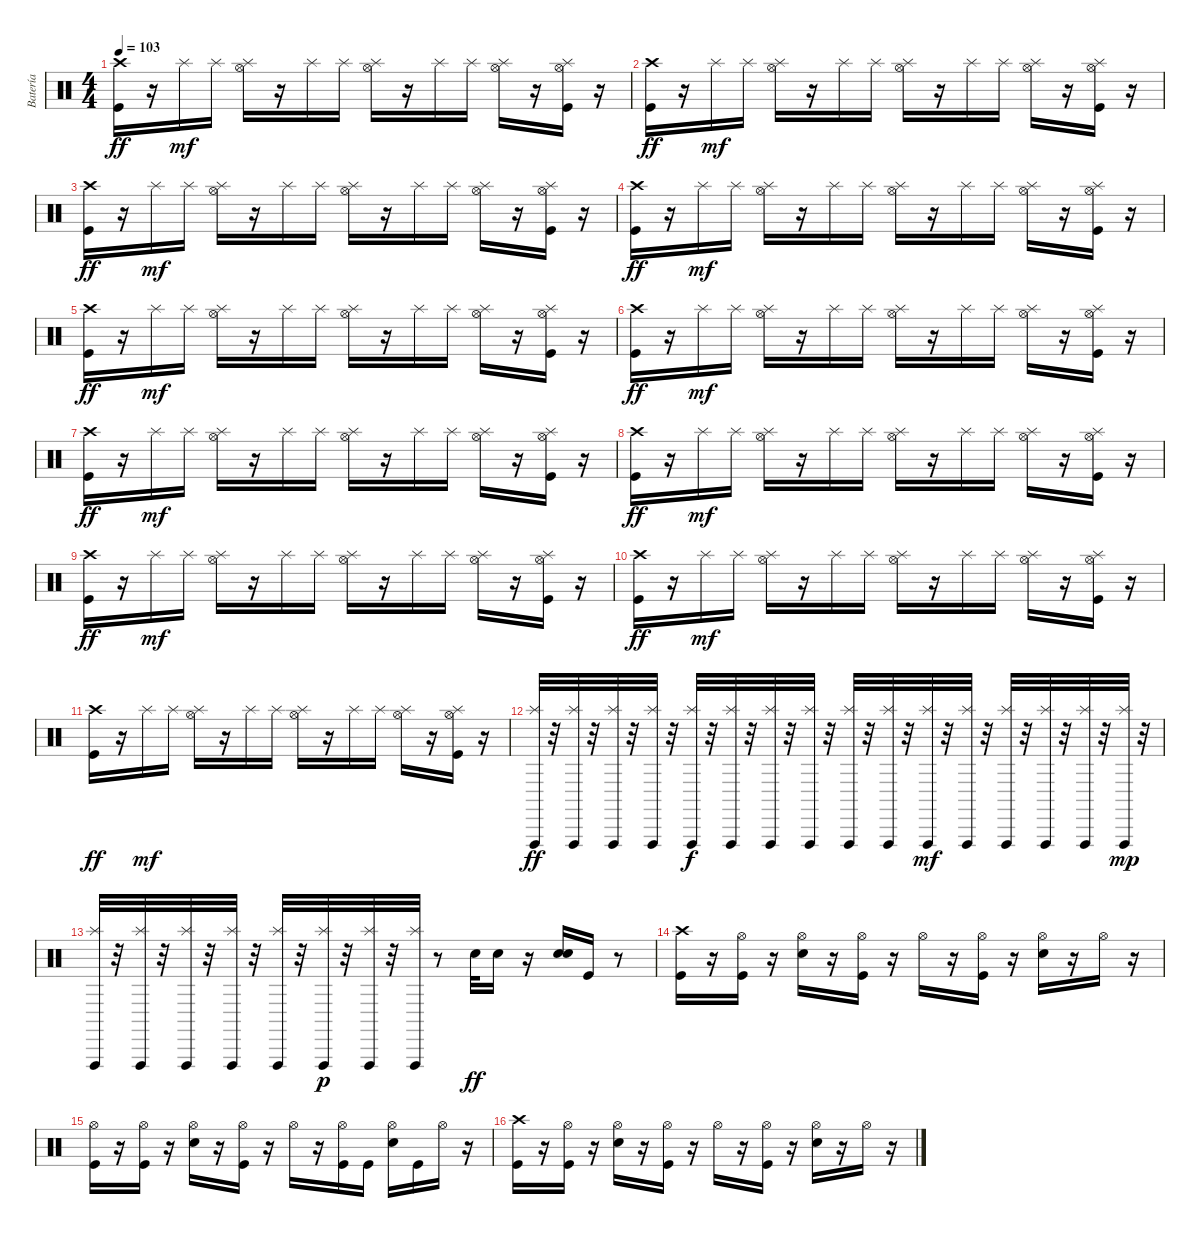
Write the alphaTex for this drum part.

\track ("Batería" "Batería") {instrument percussion}
\staff {score}
\articulation defaults
\ts (4 4)
\tempo 103
\clef neutral
\ks c
("Kick (hit)" "Crash high (hit)").16{dy ff} r.16 "Splash (hit)".16{dy mf} "Splash (hit)".16 ("Hi-Hat (open)" "Splash (hit)").16 r.16 "Splash (hit)".16 "Splash (hit)".16 ("Hi-Hat (open)" "Splash (hit)").16 r.16 "Splash (hit)".16 "Splash (hit)".16 ("Hi-Hat (open)" "Splash (hit)").16 r.16 ("Kick (hit)" "Hi-Hat (open)" "Splash (hit)").16 r.16 |
("Crash high (hit)" "Kick (hit)").16{dy ff} r.16 "Splash (hit)".16{dy mf} "Splash (hit)".16 ("Hi-Hat (open)" "Splash (hit)").16 r.16 "Splash (hit)".16 "Splash (hit)".16 ("Hi-Hat (open)" "Splash (hit)").16 r.16 "Splash (hit)".16 "Splash (hit)".16 ("Hi-Hat (open)" "Splash (hit)").16 r.16 ("Kick (hit)" "Hi-Hat (open)" "Splash (hit)").16 r.16 |
("Crash high (hit)" "Kick (hit)").16{dy ff} r.16 "Splash (hit)".16{dy mf} "Splash (hit)".16 ("Hi-Hat (open)" "Splash (hit)").16 r.16 "Splash (hit)".16 "Splash (hit)".16 ("Hi-Hat (open)" "Splash (hit)").16 r.16 "Splash (hit)".16 "Splash (hit)".16 ("Hi-Hat (open)" "Splash (hit)").16 r.16 ("Kick (hit)" "Hi-Hat (open)" "Splash (hit)").16 r.16 |
("Crash high (hit)" "Kick (hit)").16{dy ff} r.16 "Splash (hit)".16{dy mf} "Splash (hit)".16 ("Hi-Hat (open)" "Splash (hit)").16 r.16 "Splash (hit)".16 "Splash (hit)".16 ("Hi-Hat (open)" "Splash (hit)").16 r.16 "Splash (hit)".16 "Splash (hit)".16 ("Hi-Hat (open)" "Splash (hit)").16 r.16 ("Kick (hit)" "Hi-Hat (open)" "Splash (hit)").16 r.16 |
("Crash high (hit)" "Kick (hit)").16{dy ff} r.16 "Splash (hit)".16{dy mf} "Splash (hit)".16 ("Hi-Hat (open)" "Splash (hit)").16 r.16 "Splash (hit)".16 "Splash (hit)".16 ("Hi-Hat (open)" "Splash (hit)").16 r.16 "Splash (hit)".16 "Splash (hit)".16 ("Hi-Hat (open)" "Splash (hit)").16 r.16 ("Kick (hit)" "Hi-Hat (open)" "Splash (hit)").16 r.16 |
("Crash high (hit)" "Kick (hit)").16{dy ff} r.16 "Splash (hit)".16{dy mf} "Splash (hit)".16 ("Hi-Hat (open)" "Splash (hit)").16 r.16 "Splash (hit)".16 "Splash (hit)".16 ("Hi-Hat (open)" "Splash (hit)").16 r.16 "Splash (hit)".16 "Splash (hit)".16 ("Hi-Hat (open)" "Splash (hit)").16 r.16 ("Kick (hit)" "Hi-Hat (open)" "Splash (hit)").16 r.16 |
("Crash high (hit)" "Kick (hit)").16{dy ff} r.16 "Splash (hit)".16{dy mf} "Splash (hit)".16 ("Hi-Hat (open)" "Splash (hit)").16 r.16 "Splash (hit)".16 "Splash (hit)".16 ("Hi-Hat (open)" "Splash (hit)").16 r.16 "Splash (hit)".16 "Splash (hit)".16 ("Hi-Hat (open)" "Splash (hit)").16 r.16 ("Kick (hit)" "Hi-Hat (open)" "Splash (hit)").16 r.16 |
("Crash high (hit)" "Kick (hit)").16{dy ff} r.16 "Splash (hit)".16{dy mf} "Splash (hit)".16 ("Hi-Hat (open)" "Splash (hit)").16 r.16 "Splash (hit)".16 "Splash (hit)".16 ("Hi-Hat (open)" "Splash (hit)").16 r.16 "Splash (hit)".16 "Splash (hit)".16 ("Hi-Hat (open)" "Splash (hit)").16 r.16 ("Kick (hit)" "Hi-Hat (open)" "Splash (hit)").16 r.16 |
("Crash high (hit)" "Kick (hit)").16{dy ff} r.16 "Splash (hit)".16{dy mf} "Splash (hit)".16 ("Hi-Hat (open)" "Splash (hit)").16 r.16 "Splash (hit)".16 "Splash (hit)".16 ("Hi-Hat (open)" "Splash (hit)").16 r.16 "Splash (hit)".16 "Splash (hit)".16 ("Hi-Hat (open)" "Splash (hit)").16 r.16 ("Kick (hit)" "Hi-Hat (open)" "Splash (hit)").16 r.16 |
("Crash high (hit)" "Kick (hit)").16{dy ff} r.16 "Splash (hit)".16{dy mf} "Splash (hit)".16 ("Hi-Hat (open)" "Splash (hit)").16 r.16 "Splash (hit)".16 "Splash (hit)".16 ("Hi-Hat (open)" "Splash (hit)").16 r.16 "Splash (hit)".16 "Splash (hit)".16 ("Hi-Hat (open)" "Splash (hit)").16 r.16 ("Kick (hit)" "Hi-Hat (open)" "Splash (hit)").16 r.16 |
("Crash high (hit)" "Kick (hit)").16{dy ff} r.16 "Splash (hit)".16{dy mf} "Splash (hit)".16 ("Hi-Hat (open)" "Splash (hit)").16 r.16 "Splash (hit)".16 "Splash (hit)".16 ("Hi-Hat (open)" "Splash (hit)").16 r.16 "Splash (hit)".16 "Splash (hit)".16 ("Hi-Hat (open)" "Splash (hit)").16 r.16 ("Kick (hit)" "Hi-Hat (open)" "Splash (hit)").16 r.16 |
("Vibraslap (hit)" "Splash (hit)").32{dy ff} r.32 ("Vibraslap (hit)" "Splash (hit)").32 r.32 ("Vibraslap (hit)" "Splash (hit)").32 r.32 ("Vibraslap (hit)" "Splash (hit)").32 r.32 ("Vibraslap (hit)" "Splash (hit)").32{dy f} r.32 ("Vibraslap (hit)" "Splash (hit)").32 r.32 ("Vibraslap (hit)" "Splash (hit)").32 r.32 ("Vibraslap (hit)" "Splash (hit)").32 r.32 ("Vibraslap (hit)" "Splash (hit)").32 r.32 ("Vibraslap (hit)" "Splash (hit)").32 r.32 ("Vibraslap (hit)" "Splash (hit)").32{dy mf} r.32 ("Vibraslap (hit)" "Splash (hit)").32 r.32 ("Vibraslap (hit)" "Splash (hit)").32 r.32 ("Vibraslap (hit)" "Splash (hit)").32 r.32 ("Vibraslap (hit)" "Splash (hit)").32 r.32 ("Vibraslap (hit)" "Splash (hit)").32{dy mp} r.32 |
("Vibraslap (hit)" "Splash (hit)").32 r.32 ("Vibraslap (hit)" "Splash (hit)").32 r.32 ("Vibraslap (hit)" "Splash (hit)").32 r.32 ("Vibraslap (hit)" "Splash (hit)").32 r.32 ("Vibraslap (hit)" "Splash (hit)").32 r.32 ("Vibraslap (hit)" "Splash (hit)").32{dy p} r.32 ("Vibraslap (hit)" "Splash (hit)").32 r.32 ("Vibraslap (hit)" "Splash (hit)").32 r.8 "Snare (hit) 2".32{dy ff} "Snare (hit) 2".16 r.16 ("Snare (hit) 2" "Snare (hit) 2").16 "Kick (hit)".16 r.8 |
("Crash high (hit)" "Kick (hit)").16 r.16 ("Kick (hit)" "Hi-Hat (open)").16 r.16 ("Snare (hit) 2" "Hi-Hat (open)").16 r.16 ("Kick (hit)" "Hi-Hat (open)").16 r.16 "Hi-Hat (open)".16 r.16 ("Kick (hit)" "Hi-Hat (open)").16 r.16 ("Hi-Hat (open)" "Snare (hit) 2").16 r.16 "Hi-Hat (open)".16 r.16 |
("Kick (hit)" "Hi-Hat (open)").16 r.16 ("Kick (hit)" "Hi-Hat (open)").16 r.16 ("Snare (hit) 2" "Hi-Hat (open)").16 r.16 ("Kick (hit)" "Hi-Hat (open)").16 r.16 "Hi-Hat (open)".16 r.16 ("Kick (hit)" "Hi-Hat (open)").16 "Kick (hit)".16 ("Hi-Hat (open)" "Snare (hit) 2").16 "Kick (hit)".16 "Hi-Hat (open)".16 r.16 |
("Kick (hit)" "Crash high (hit)").16 r.16 ("Kick (hit)" "Hi-Hat (open)").16 r.16 ("Snare (hit) 2" "Hi-Hat (open)").16 r.16 ("Kick (hit)" "Hi-Hat (open)").16 r.16 "Hi-Hat (open)".16 r.16 ("Kick (hit)" "Hi-Hat (open)").16 r.16 ("Hi-Hat (open)" "Snare (hit) 2").16 r.16 "Hi-Hat (open)".16 r.16
